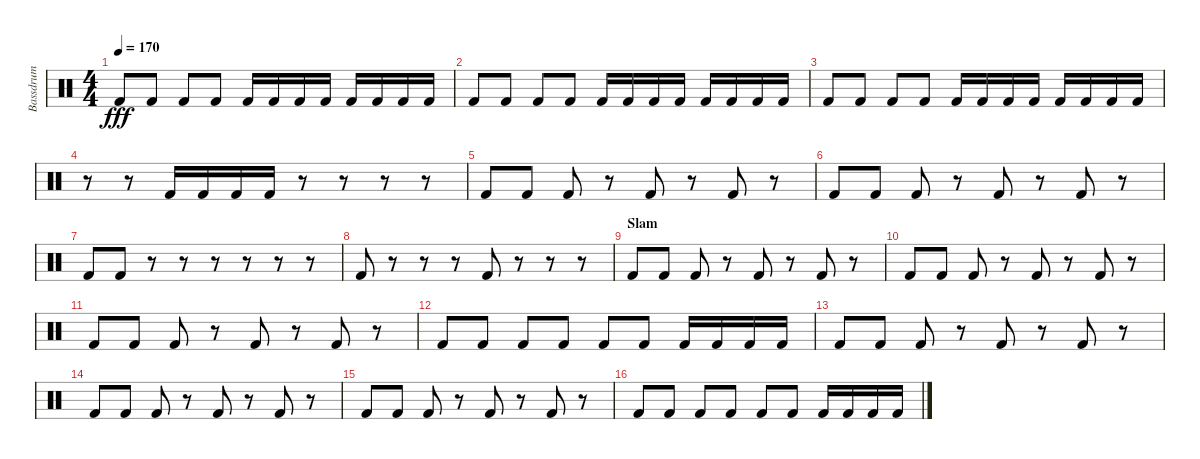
\track ("Bassdrum" "Bassdrum") {instrument percussion}
\staff {score}
\articulation defaults
\ts (4 4)
\tempo 170
\clef neutral
\ks c "Kick (hit) 2".8{dy fff} "Kick (hit) 2".8 "Kick (hit) 2".8 "Kick (hit) 2".8 "Kick (hit) 2".16 "Kick (hit) 2".16 "Kick (hit) 2".16 "Kick (hit) 2".16 "Kick (hit) 2".16 "Kick (hit) 2".16 "Kick (hit) 2".16 "Kick (hit) 2".16
|
"Kick (hit) 2".8 "Kick (hit) 2".8 "Kick (hit) 2".8 "Kick (hit) 2".8 "Kick (hit) 2".16 "Kick (hit) 2".16 "Kick (hit) 2".16 "Kick (hit) 2".16 "Kick (hit) 2".16 "Kick (hit) 2".16 "Kick (hit) 2".16 "Kick (hit) 2".16 |
"Kick (hit) 2".8 "Kick (hit) 2".8 "Kick (hit) 2".8 "Kick (hit) 2".8 "Kick (hit) 2".16 "Kick (hit) 2".16 "Kick (hit) 2".16 "Kick (hit) 2".16 "Kick (hit) 2".16 "Kick (hit) 2".16 "Kick (hit) 2".16 "Kick (hit) 2".16 |
r.8 r.8 "Kick (hit) 2".16 "Kick (hit) 2".16 "Kick (hit) 2".16 "Kick (hit) 2".16 r.8 r.8 r.8 r.8 |
"Kick (hit) 2".8 "Kick (hit) 2".8 "Kick (hit) 2".8 r.8 "Kick (hit) 2".8 r.8 "Kick (hit) 2".8 r.8 |
"Kick (hit) 2".8 "Kick (hit) 2".8 "Kick (hit) 2".8 r.8 "Kick (hit) 2".8 r.8 "Kick (hit) 2".8 r.8 |
"Kick (hit) 2".8 "Kick (hit) 2".8 r.8 r.8 r.8 r.8 r.8 r.8 |
"Kick (hit) 2".8 r.8 r.8 r.8 "Kick (hit) 2".8 r.8 r.8 r.8 |
\section ("" "Slam")
"Kick (hit) 2".8 "Kick (hit) 2".8 "Kick (hit) 2".8 r.8 "Kick (hit) 2".8 r.8 "Kick (hit) 2".8 r.8 |
"Kick (hit) 2".8 "Kick (hit) 2".8 "Kick (hit) 2".8 r.8 "Kick (hit) 2".8 r.8 "Kick (hit) 2".8 r.8 |
"Kick (hit) 2".8 "Kick (hit) 2".8 "Kick (hit) 2".8 r.8 "Kick (hit) 2".8 r.8 "Kick (hit) 2".8 r.8 |
"Kick (hit) 2".8 "Kick (hit) 2".8 "Kick (hit) 2".8 "Kick (hit) 2".8 "Kick (hit) 2".8 "Kick (hit) 2".8 "Kick (hit) 2".16 "Kick (hit) 2".16 "Kick (hit) 2".16 "Kick (hit) 2".16 |
"Kick (hit) 2".8 "Kick (hit) 2".8 "Kick (hit) 2".8 r.8 "Kick (hit) 2".8 r.8 "Kick (hit) 2".8 r.8 |
"Kick (hit) 2".8 "Kick (hit) 2".8 "Kick (hit) 2".8 r.8 "Kick (hit) 2".8 r.8 "Kick (hit) 2".8 r.8 |
"Kick (hit) 2".8 "Kick (hit) 2".8 "Kick (hit) 2".8 r.8 "Kick (hit) 2".8 r.8 "Kick (hit) 2".8 r.8 |
"Kick (hit) 2".8 "Kick (hit) 2".8 "Kick (hit) 2".8 "Kick (hit) 2".8 "Kick (hit) 2".8 "Kick (hit) 2".8 "Kick (hit) 2".16 "Kick (hit) 2".16 "Kick (hit) 2".16 "Kick (hit) 2".16
